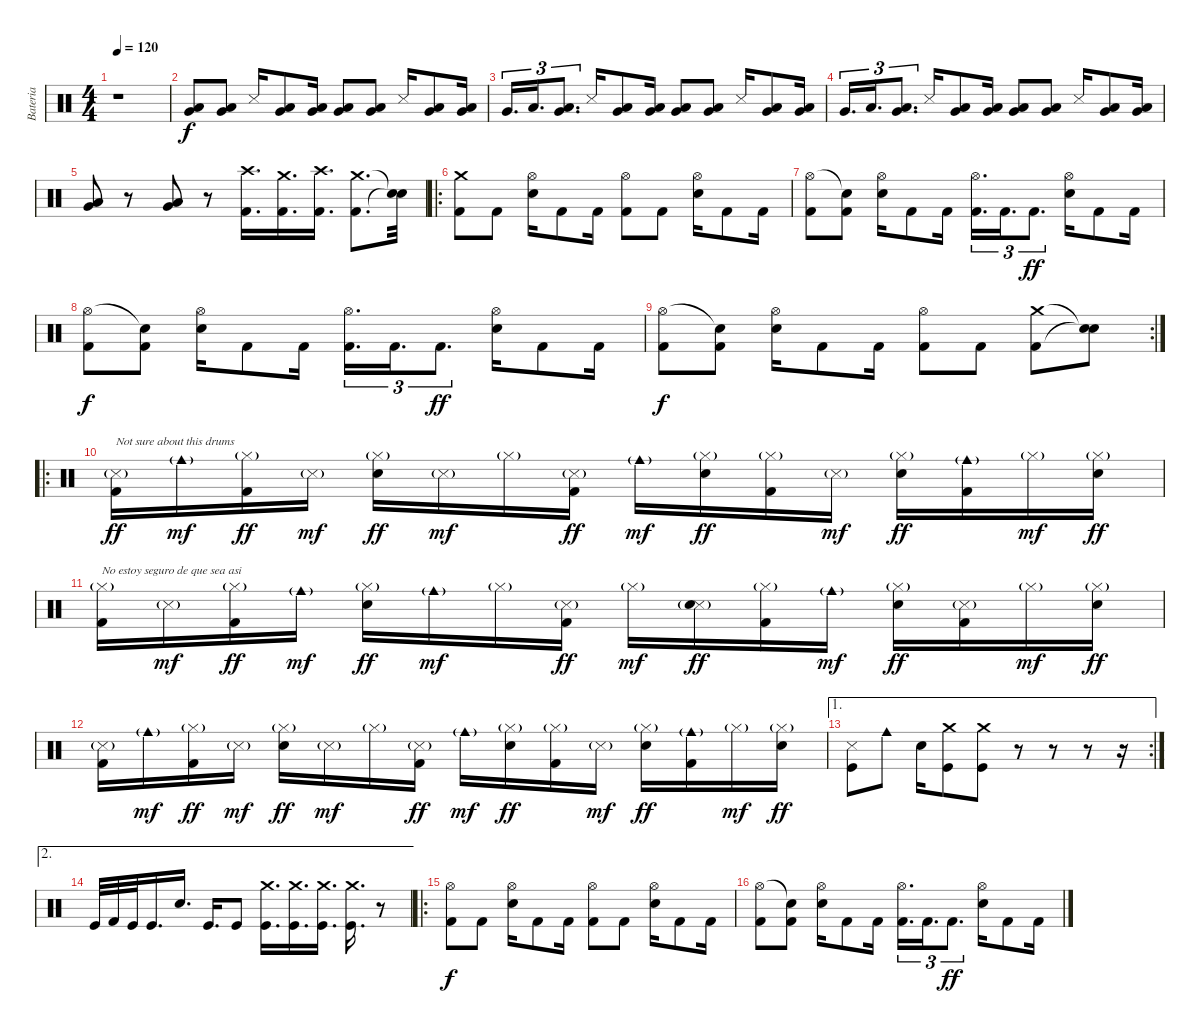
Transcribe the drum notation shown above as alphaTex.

\track ("Bateria" "Bateria") {instrument percussion}
\staff {score}
\articulation defaults
\ts (4 4)
\tempo 120
\clef neutral
\ks c
r.1{dy f} |
("Very Low Tom (hit)" "Low Floor Tom (hit)").8 ("Very Low Tom (hit)" "Low Floor Tom (hit)").8 "Snare (side stick) 3".16 ("Very Low Tom (hit)" "Low Floor Tom (hit)").8 ("Very Low Tom (hit)" "Low Floor Tom (hit)").16 ("Very Low Tom (hit)" "Low Floor Tom (hit)").8 ("Very Low Tom (hit)" "Low Floor Tom (hit)").8 "Snare (side stick) 3".16 ("Very Low Tom (hit)" "Low Floor Tom (hit)").8 ("Very Low Tom (hit)" "Low Floor Tom (hit)").16 |
"Very Low Tom (hit)".16{d tu (3 2)} "Low Tom (hit)".16{d tu (3 2)} ("Low Tom (hit)" "Very Low Tom (hit)").8{d tu (3 2)} "Snare (side stick) 3".16 ("Very Low Tom (hit)" "Low Tom (hit)").8 ("Very Low Tom (hit)" "Low Tom (hit)").16 ("Very Low Tom (hit)" "Low Floor Tom (hit)").8 ("Very Low Tom (hit)" "Low Floor Tom (hit)").8 "Snare (side stick) 3".16 ("Very Low Tom (hit)" "Low Floor Tom (hit)").8 ("Very Low Tom (hit)" "Low Floor Tom (hit)").16 |
"Very Low Tom (hit)".16{d tu (3 2)} "Low Tom (hit)".16{d tu (3 2)} ("Low Tom (hit)" "Very Low Tom (hit)").8{d tu (3 2)} "Snare (side stick) 3".16 ("Very Low Tom (hit)" "Low Tom (hit)").8 ("Very Low Tom (hit)" "Low Tom (hit)").16 ("Very Low Tom (hit)" "Low Floor Tom (hit)").8 ("Very Low Tom (hit)" "Low Floor Tom (hit)").8 "Snare (side stick) 3".16 ("Very Low Tom (hit)" "Low Floor Tom (hit)").8 ("Very Low Tom (hit)" "Low Floor Tom (hit)").16 |
("Very Low Tom (hit)" "Low Floor Tom (hit)").8 r.8 ("Very Low Tom (hit)" "Low Floor Tom (hit)").8 r.8 ("Crash high (hit)" "Kick (hit) 2").16{d} ("Crash medium (hit)" "Kick (hit) 2").16{d} ("Crash high (hit)" "Kick (hit) 2").16{d} ("Crash medium (hit)" "Kick (hit) 2").8{d} ("Snare (hit)"{t} "Snare (hit)"{t}).32 |
\ro
("Crash medium (hit)" "Kick (hit) 2").8 "Kick (hit) 2".8 ("Hi-Hat (open)" "Electric Snare (hit)").16 "Kick (hit) 2".8 "Kick (hit) 2".16 ("Hi-Hat (open)" "Kick (hit) 2").8 "Kick (hit) 2".8 ("Hi-Hat (open)" "Electric Snare (hit)").16 "Kick (hit) 2".8 "Kick (hit) 2".16 |
("Hi-Hat (open)" "Kick (hit) 2").8 ("Snare (hit)"{t} "Kick (hit) 2").8 ("Hi-Hat (open)" "Electric Snare (hit)").16 "Kick (hit) 2".8 "Kick (hit) 2".16 ("Hi-Hat (open)" "Kick (hit) 2").16{d tu (3 2)} "Kick (hit) 2".16{d tu (3 2)} "Kick (hit) 2".8{d tu (3 2) dy ff} ("Hi-Hat (open)" "Electric Snare (hit)").16 "Kick (hit) 2".8 "Kick (hit) 2".16 |
("Hi-Hat (open)" "Kick (hit) 2").8{dy f} ("Snare (hit)"{t} "Kick (hit) 2").8 ("Hi-Hat (open)" "Electric Snare (hit)").16 "Kick (hit) 2".8 "Kick (hit) 2".16 ("Hi-Hat (open)" "Kick (hit) 2").16{d tu (3 2)} "Kick (hit) 2".16{d tu (3 2)} "Kick (hit) 2".8{d tu (3 2) dy ff} ("Hi-Hat (open)" "Electric Snare (hit)").16 "Kick (hit) 2".8 "Kick (hit) 2".16 |
\rc 2
("Hi-Hat (open)" "Kick (hit) 2").8{dy f} ("Snare (hit)"{t} "Kick (hit) 2").8 ("Hi-Hat (open)" "Electric Snare (hit)").16 "Kick (hit) 2".8 "Kick (hit) 2".16 ("Hi-Hat (open)" "Kick (hit) 2").8 "Kick (hit) 2".8 ("Crash medium (hit)" "Kick (hit) 2").8 ("Snare (hit)"{t} "Snare (hit)"{t}).8 |
\ro
("Snare (side stick) 3"{g} "Kick (hit) 2").16{txt "Not sure about this drums" dy ff} "Cowbell medium (hit)"{g}.16{dy mf} ("Hi-Hat (closed)"{g} "Kick (hit) 2").16{dy ff} "Snare (side stick) 3"{g}.16{dy mf} ("Hi-Hat (closed)"{g} "Electric Snare (hit)").16{dy ff} "Snare (side stick) 3"{g}.16{dy mf} "Hi-Hat (closed)"{g}.16 ("Snare (side stick) 3"{g} "Kick (hit) 2").16{dy ff} "Cowbell medium (hit)"{g}.16{dy mf} ("Hi-Hat (closed)"{g} "Electric Snare (hit)").16{dy ff} ("Hi-Hat (closed)"{g} "Kick (hit) 2").16 "Snare (side stick) 3"{g}.16{dy mf} ("Hi-Hat (closed)"{g} "Electric Snare (hit)").16{dy ff} ("Cowbell medium (hit)"{g} "Kick (hit) 2").16 "Hi-Hat (closed)"{g}.16{dy mf} ("Hi-Hat (closed)"{g} "Electric Snare (hit)").16{dy ff} |
("Hi-Hat (closed)"{g} "Kick (hit) 2").16{txt "No estoy seguro de que sea asi"} "Snare (side stick) 3"{g}.16{dy mf} ("Hi-Hat (closed)"{g} "Kick (hit) 2").16{dy ff} "Cowbell medium (hit)"{g}.16{dy mf} ("Hi-Hat (closed)"{g} "Electric Snare (hit)").16{dy ff} "Cowbell medium (hit)"{g}.16{dy mf} "Hi-Hat (closed)"{g}.16 ("Snare (side stick) 3"{g} "Kick (hit) 2").16{dy ff} "Hi-Hat (closed)"{g}.16{dy mf} ("Snare (side stick) 3"{g} "Electric Snare (hit)").16{dy ff} ("Hi-Hat (closed)"{g} "Kick (hit) 2").16 "Cowbell medium (hit)"{g}.16{dy mf} ("Hi-Hat (closed)"{g} "Electric Snare (hit)").16{dy ff} ("Snare (side stick) 3"{g} "Kick (hit) 2").16 "Hi-Hat (closed)"{g}.16{dy mf} ("Hi-Hat (closed)"{g} "Electric Snare (hit)").16{dy ff} |
("Snare (side stick) 3"{g} "Kick (hit) 2").16 "Cowbell medium (hit)"{g}.16{dy mf} ("Hi-Hat (closed)"{g} "Kick (hit) 2").16{dy ff} "Snare (side stick) 3"{g}.16{dy mf} ("Hi-Hat (closed)"{g} "Electric Snare (hit)").16{dy ff} "Snare (side stick) 3"{g}.16{dy mf} "Hi-Hat (closed)"{g}.16 ("Snare (side stick) 3"{g} "Kick (hit) 2").16{dy ff} "Cowbell medium (hit)"{g}.16{dy mf} ("Hi-Hat (closed)"{g} "Electric Snare (hit)").16{dy ff} ("Hi-Hat (closed)"{g} "Kick (hit) 2").16 "Snare (side stick) 3"{g}.16{dy mf} ("Hi-Hat (closed)"{g} "Electric Snare (hit)").16{dy ff} ("Cowbell medium (hit)"{g} "Kick (hit) 2").16 "Hi-Hat (closed)"{g}.16{dy mf} ("Hi-Hat (closed)"{g} "Electric Snare (hit)").16{dy ff} |
\ae 1
\rc 2
("Snare (side stick) 3" "Kick (hit)").8 "Cowbell medium (hit)".8 "Electric Snare (hit)".16 ("Crash medium (hit)" "Kick (hit)").8 ("Crash medium (hit)" "Kick (hit)").8 r.8 r.8 r.8 r.16 |
\ae 2 "Kick (hit)".32 "Kick (hit) 2".32 "Kick (hit)".32 "Kick (hit)".16{d} "Electric Snare (hit)".16{d} "Kick (hit)".16{d} "Kick (hit)".8
("Crash medium (hit)" "Kick (hit)").16{d} ("Crash medium (hit)" "Kick (hit)").16{d} ("Crash medium (hit)" "Kick (hit)").16{d} ("Crash medium (hit)" "Kick (hit)").16{d} r.8 |
\ro
("Hi-Hat (open)" "Kick (hit) 2").8{dy f} "Kick (hit) 2".8 ("Hi-Hat (open)" "Electric Snare (hit)").16 "Kick (hit) 2".8 "Kick (hit) 2".16 ("Hi-Hat (open)" "Kick (hit) 2").8 "Kick (hit) 2".8 ("Hi-Hat (open)" "Electric Snare (hit)").16 "Kick (hit) 2".8 "Kick (hit) 2".16 |
("Hi-Hat (open)" "Kick (hit) 2").8 ("Snare (hit)"{t} "Kick (hit) 2").8 ("Hi-Hat (open)" "Electric Snare (hit)").16 "Kick (hit) 2".8 "Kick (hit) 2".16 ("Hi-Hat (open)" "Kick (hit) 2").16{d tu (3 2)} "Kick (hit) 2".16{d tu (3 2)} "Kick (hit) 2".8{d tu (3 2) dy ff} ("Hi-Hat (open)" "Electric Snare (hit)").16 "Kick (hit) 2".8 "Kick (hit) 2".16
